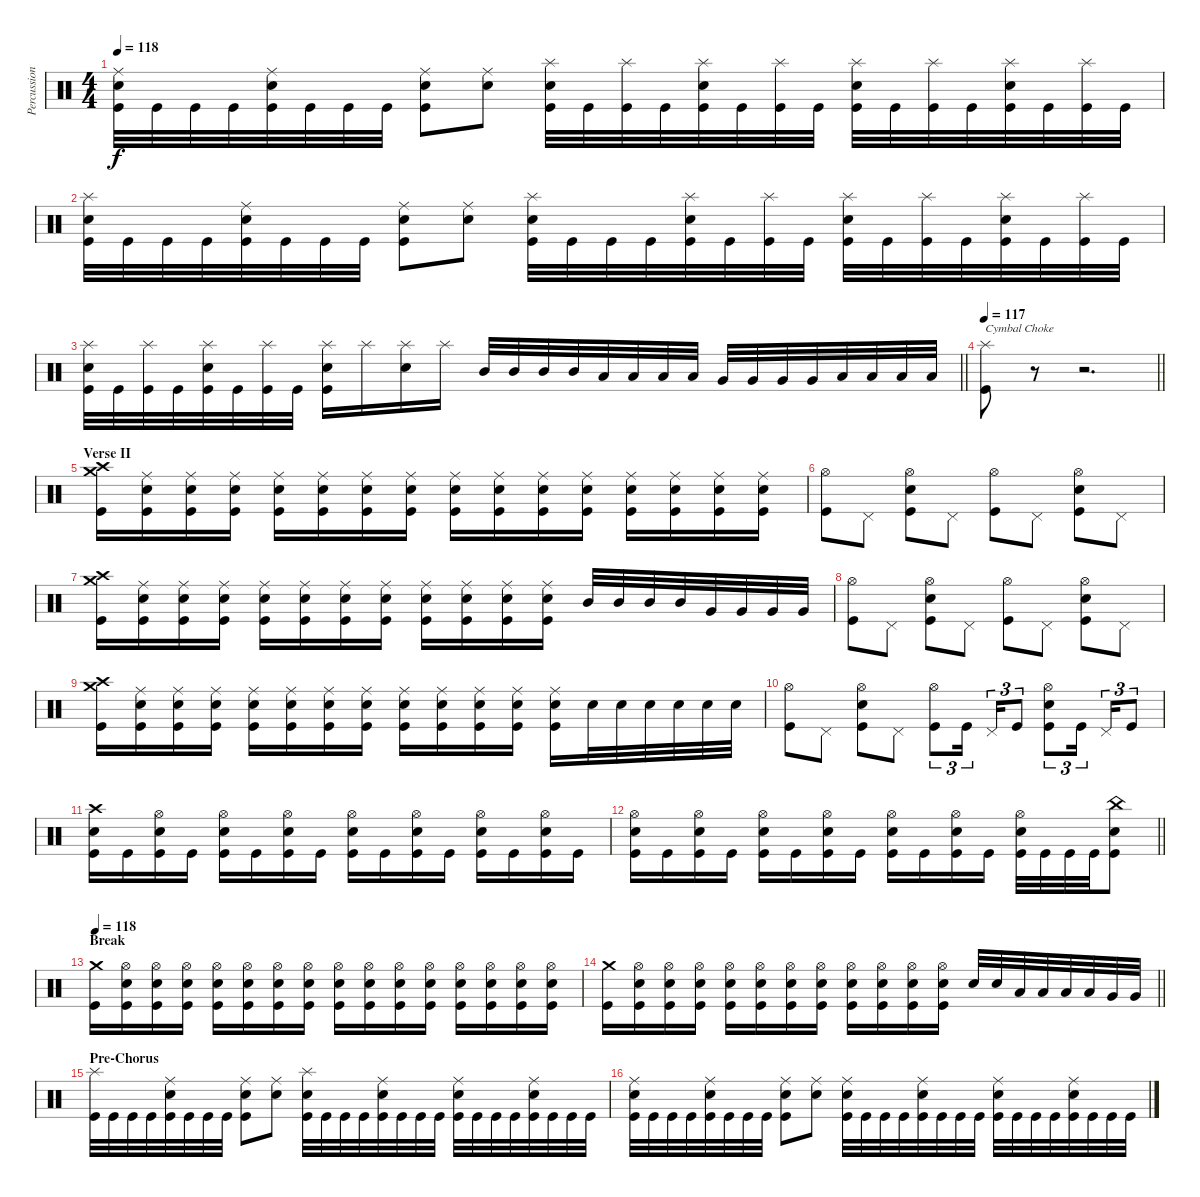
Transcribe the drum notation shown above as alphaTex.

\track ("Percussion" "Percussion") {instrument percussion}
\staff {score}
\articulation defaults
\ts (4 4)
\tempo 118
\clef neutral
\ks c
("Ride (middle)" "Electric Snare (hit)" "Kick (hit)").32{dy f} "Kick (hit)".32 "Kick (hit)".32 "Kick (hit)".32 ("Ride (middle)" "Electric Snare (hit)" "Kick (hit)").32 "Kick (hit)".32 "Kick (hit)".32 "Kick (hit)".32 ("Ride (middle)" "Electric Snare (hit)" "Kick (hit)").8 ("Ride (middle)" "Electric Snare (hit)").8 ("Splash (hit)" "Electric Snare (hit)" "Kick (hit)").32 "Kick (hit)".32 ("Splash (hit)" "Kick (hit)").32 "Kick (hit)".32 ("Splash (hit)" "Electric Snare (hit)" "Kick (hit)").32 "Kick (hit)".32 ("Splash (hit)" "Kick (hit)").32 "Kick (hit)".32 ("Splash (hit)" "Electric Snare (hit)" "Kick (hit)").32 "Kick (hit)".32 ("Splash (hit)" "Kick (hit)").32 "Kick (hit)".32 ("Splash (hit)" "Electric Snare (hit)" "Kick (hit)").32 "Kick (hit)".32 ("Splash (hit)" "Kick (hit)").32 "Kick (hit)".32 |
("Splash (hit)" "Electric Snare (hit)" "Kick (hit)").32 "Kick (hit)".32 "Kick (hit)".32 "Kick (hit)".32 ("Ride (middle)" "Electric Snare (hit)" "Kick (hit)").32 "Kick (hit)".32 "Kick (hit)".32 "Kick (hit)".32 ("Ride (middle)" "Electric Snare (hit)" "Kick (hit)").8 ("Ride (middle)" "Electric Snare (hit)").8 ("Splash (hit)" "Electric Snare (hit)" "Kick (hit)").32 "Kick (hit)".32 "Kick (hit)".32 "Kick (hit)".32 ("Splash (hit)" "Electric Snare (hit)" "Kick (hit)").32 "Kick (hit)".32 ("Splash (hit)" "Kick (hit)").32 "Kick (hit)".32 ("Splash (hit)" "Electric Snare (hit)" "Kick (hit)").32 "Kick (hit)".32 ("Splash (hit)" "Kick (hit)").32 "Kick (hit)".32 ("Splash (hit)" "Electric Snare (hit)" "Kick (hit)").32 "Kick (hit)".32 ("Splash (hit)" "Kick (hit)").32 "Kick (hit)".32 |
\barLineRight lightlight
("Splash (hit)" "Electric Snare (hit)" "Kick (hit)").32 "Kick (hit)".32 ("Splash (hit)" "Kick (hit)").32 "Kick (hit)".32 ("Splash (hit)" "Electric Snare (hit)" "Kick (hit)").32 "Kick (hit)".32 ("Splash (hit)" "Kick (hit)").32 "Kick (hit)".32 ("Splash (hit)" "Electric Snare (hit)" "Kick (hit)").16 "Splash (hit)".16 ("Splash (hit)" "Electric Snare (hit)").16 "Splash (hit)".16 "Mid Tom (hit)".32 "Mid Tom (hit)".32 "Mid Tom (hit)".32 "Mid Tom (hit)".32 "Low Tom (hit)".32 "Low Tom (hit)".32 "Low Tom (hit)".32 "Low Tom (hit)".32 "Very Low Tom (hit)".32 "Very Low Tom (hit)".32 "Very Low Tom (hit)".32 "Very Low Tom (hit)".32 "Low Floor Tom (hit)".32 "Low Floor Tom (hit)".32 "Low Floor Tom (hit)".32 "Low Floor Tom (hit)".32 |
\tempo 117
\barLineRight lightlight
("Splash (hit)" "Kick (hit)").8{txt "Cymbal Choke"} r.8{volume 0} r.2{d} |
\section ("" "Verse II")
("Crash medium (hit)" "Crash high (hit)" "Kick (hit)").16{volume 13} ("Ride (middle)" "Electric Snare (hit)" "Kick (hit)").16 ("Ride (middle)" "Electric Snare (hit)" "Kick (hit)").16 ("Ride (middle)" "Electric Snare (hit)" "Kick (hit)").16 ("Ride (middle)" "Electric Snare (hit)" "Kick (hit)").16 ("Ride (middle)" "Electric Snare (hit)" "Kick (hit)").16 ("Ride (middle)" "Electric Snare (hit)" "Kick (hit)").16 ("Ride (middle)" "Electric Snare (hit)" "Kick (hit)").16 ("Ride (middle)" "Electric Snare (hit)" "Kick (hit)").16 ("Ride (middle)" "Electric Snare (hit)" "Kick (hit)").16 ("Ride (middle)" "Electric Snare (hit)" "Kick (hit)").16 ("Ride (middle)" "Electric Snare (hit)" "Kick (hit)").16 ("Ride (middle)" "Electric Snare (hit)" "Kick (hit)").16 ("Ride (middle)" "Electric Snare (hit)" "Kick (hit)").16 ("Ride (middle)" "Electric Snare (hit)" "Kick (hit)").16 ("Ride (middle)" "Electric Snare (hit)" "Kick (hit)").16 |
("Hi-Hat (open)" "Kick (hit)").8 "Pedal Hi-Hat (hit)".8 ("Hi-Hat (open)" "Electric Snare (hit)" "Kick (hit)").8 "Pedal Hi-Hat (hit)".8 ("Hi-Hat (open)" "Kick (hit)").8 "Pedal Hi-Hat (hit)".8 ("Hi-Hat (open)" "Electric Snare (hit)" "Kick (hit)").8 "Pedal Hi-Hat (hit)".8 |
("Crash medium (hit)" "Crash high (hit)" "Kick (hit)").16 ("Ride (middle)" "Electric Snare (hit)" "Kick (hit)").16 ("Ride (middle)" "Electric Snare (hit)" "Kick (hit)").16 ("Ride (middle)" "Electric Snare (hit)" "Kick (hit)").16 ("Ride (middle)" "Electric Snare (hit)" "Kick (hit)").16 ("Ride (middle)" "Electric Snare (hit)" "Kick (hit)").16 ("Ride (middle)" "Electric Snare (hit)" "Kick (hit)").16 ("Ride (middle)" "Electric Snare (hit)" "Kick (hit)").16 ("Ride (middle)" "Electric Snare (hit)" "Kick (hit)").16 ("Ride (middle)" "Electric Snare (hit)" "Kick (hit)").16 ("Ride (middle)" "Electric Snare (hit)" "Kick (hit)").16 ("Ride (middle)" "Electric Snare (hit)" "Kick (hit)").16 "Mid Tom (hit)".32 "Mid Tom (hit)".32 "Mid Tom (hit)".32 "Mid Tom (hit)".32 "Very Low Tom (hit)".32 "Very Low Tom (hit)".32 "Very Low Tom (hit)".32 "Very Low Tom (hit)".32 |
("Hi-Hat (open)" "Kick (hit)").8 "Pedal Hi-Hat (hit)".8 ("Hi-Hat (open)" "Electric Snare (hit)" "Kick (hit)").8 "Pedal Hi-Hat (hit)".8 ("Hi-Hat (open)" "Kick (hit)").8 "Pedal Hi-Hat (hit)".8 ("Hi-Hat (open)" "Electric Snare (hit)" "Kick (hit)").8 "Pedal Hi-Hat (hit)".8 |
("Crash medium (hit)" "Crash high (hit)" "Kick (hit)").16 ("Ride (middle)" "Electric Snare (hit)" "Kick (hit)").16 ("Ride (middle)" "Electric Snare (hit)" "Kick (hit)").16 ("Ride (middle)" "Electric Snare (hit)" "Kick (hit)").16 ("Ride (middle)" "Electric Snare (hit)" "Kick (hit)").16 ("Ride (middle)" "Electric Snare (hit)" "Kick (hit)").16 ("Ride (middle)" "Electric Snare (hit)" "Kick (hit)").16 ("Ride (middle)" "Electric Snare (hit)" "Kick (hit)").16 ("Ride (middle)" "Electric Snare (hit)" "Kick (hit)").16 ("Ride (middle)" "Electric Snare (hit)" "Kick (hit)").16 ("Ride (middle)" "Electric Snare (hit)" "Kick (hit)").16 ("Ride (middle)" "Electric Snare (hit)" "Kick (hit)").16 ("Ride (middle)" "Electric Snare (hit)" "Kick (hit)").16 "Electric Snare (hit)".32 "Electric Snare (hit)".32 "Electric Snare (hit)".32 "Electric Snare (hit)".32 "Electric Snare (hit)".32 "Electric Snare (hit)".32 |
("Hi-Hat (open)" "Kick (hit)").8 "Pedal Hi-Hat (hit)".8 ("Hi-Hat (open)" "Electric Snare (hit)" "Kick (hit)").8 "Pedal Hi-Hat (hit)".8 ("Hi-Hat (open)" "Kick (hit)").8{tu (3 2)} "Kick (hit)".16{tu (3 2) beam splitsecondary} "Pedal Hi-Hat (hit)".16{tu (3 2)} "Kick (hit)".8{tu (3 2)} ("Hi-Hat (open)" "Electric Snare (hit)" "Kick (hit)").8{tu (3 2)} "Kick (hit)".16{tu (3 2) beam splitsecondary} "Pedal Hi-Hat (hit)".16{tu (3 2)} "Kick (hit)".8{tu (3 2)} |
("Crash high (hit)" "Electric Snare (hit)" "Kick (hit)").16 "Kick (hit)".16 ("Hi-Hat (open)" "Electric Snare (hit)" "Kick (hit)").16 "Kick (hit)".16 ("Hi-Hat (open)" "Electric Snare (hit)" "Kick (hit)").16 "Kick (hit)".16 ("Hi-Hat (open)" "Electric Snare (hit)" "Kick (hit)").16 "Kick (hit)".16 ("Hi-Hat (open)" "Electric Snare (hit)" "Kick (hit)").16 "Kick (hit)".16 ("Hi-Hat (open)" "Electric Snare (hit)" "Kick (hit)").16 "Kick (hit)".16 ("Hi-Hat (open)" "Electric Snare (hit)" "Kick (hit)").16 "Kick (hit)".16 ("Hi-Hat (open)" "Electric Snare (hit)" "Kick (hit)").16 "Kick (hit)".16 |
\barLineRight lightlight
("Hi-Hat (open)" "Electric Snare (hit)" "Kick (hit)").16 "Kick (hit)".16 ("Hi-Hat (open)" "Electric Snare (hit)" "Kick (hit)").16 "Kick (hit)".16 ("Hi-Hat (open)" "Electric Snare (hit)" "Kick (hit)").16 "Kick (hit)".16 ("Hi-Hat (open)" "Electric Snare (hit)" "Kick (hit)").16 "Kick (hit)".16 ("Hi-Hat (open)" "Electric Snare (hit)" "Kick (hit)").16 "Kick (hit)".16 ("Hi-Hat (open)" "Electric Snare (hit)" "Kick (hit)").16 "Kick (hit)".16 ("Hi-Hat (open)" "Electric Snare (hit)" "Kick (hit)").32 "Kick (hit)".32 "Kick (hit)".32 "Kick (hit)".32 ("China (hit)" "Electric Snare (hit)" "Kick (hit)").8 |
\section ("" "Break")
\tempo 118
("Crash medium (hit)" "Kick (hit)").16 ("Hi-Hat (open)" "Electric Snare (hit)" "Kick (hit)").16 ("Hi-Hat (open)" "Electric Snare (hit)" "Kick (hit)").16 ("Hi-Hat (open)" "Electric Snare (hit)" "Kick (hit)").16 ("Hi-Hat (open)" "Electric Snare (hit)" "Kick (hit)").16 ("Hi-Hat (open)" "Electric Snare (hit)" "Kick (hit)").16 ("Hi-Hat (open)" "Electric Snare (hit)" "Kick (hit)").16 ("Hi-Hat (open)" "Electric Snare (hit)" "Kick (hit)").16 ("Hi-Hat (open)" "Electric Snare (hit)" "Kick (hit)").16 ("Hi-Hat (open)" "Electric Snare (hit)" "Kick (hit)").16 ("Hi-Hat (open)" "Electric Snare (hit)" "Kick (hit)").16 ("Hi-Hat (open)" "Electric Snare (hit)" "Kick (hit)").16 ("Hi-Hat (open)" "Electric Snare (hit)" "Kick (hit)").16 ("Hi-Hat (open)" "Electric Snare (hit)" "Kick (hit)").16 ("Hi-Hat (open)" "Electric Snare (hit)" "Kick (hit)").16 ("Hi-Hat (open)" "Electric Snare (hit)" "Kick (hit)").16 |
\barLineRight lightlight
("Crash medium (hit)" "Kick (hit)").16 ("Hi-Hat (open)" "Electric Snare (hit)" "Kick (hit)").16 ("Hi-Hat (open)" "Electric Snare (hit)" "Kick (hit)").16 ("Hi-Hat (open)" "Electric Snare (hit)" "Kick (hit)").16 ("Hi-Hat (open)" "Electric Snare (hit)" "Kick (hit)").16 ("Hi-Hat (open)" "Electric Snare (hit)" "Kick (hit)").16 ("Hi-Hat (open)" "Electric Snare (hit)" "Kick (hit)").16 ("Hi-Hat (open)" "Electric Snare (hit)" "Kick (hit)").16 ("Hi-Hat (open)" "Electric Snare (hit)" "Kick (hit)").16 ("Hi-Hat (open)" "Electric Snare (hit)" "Kick (hit)").16 ("Hi-Hat (open)" "Electric Snare (hit)" "Kick (hit)").16 ("Hi-Hat (open)" "Electric Snare (hit)" "Kick (hit)").16 "Electric Snare (hit)".32 "Electric Snare (hit)".32 "Low Tom (hit)".32 "Low Tom (hit)".32 "Low Tom (hit)".32 "Low Tom (hit)".32 "Very Low Tom (hit)".32 "Very Low Tom (hit)".32 |
\section ("" "Pre-Chorus")
("Splash (hit)" "Kick (hit)").32 "Kick (hit)".32 "Kick (hit)".32 "Kick (hit)".32 ("Ride (middle)" "Electric Snare (hit)" "Kick (hit)").32 "Kick (hit)".32 "Kick (hit)".32 "Kick (hit)".32 ("Ride (middle)" "Electric Snare (hit)" "Kick (hit)").8 ("Ride (middle)" "Electric Snare (hit)").8 ("Splash (hit)" "Electric Snare (hit)" "Kick (hit)").32 "Kick (hit)".32 "Kick (hit)".32 "Kick (hit)".32 ("Ride (middle)" "Electric Snare (hit)" "Kick (hit)").32 "Kick (hit)".32 "Kick (hit)".32 "Kick (hit)".32 ("Ride (middle)" "Electric Snare (hit)" "Kick (hit)").32 "Kick (hit)".32 "Kick (hit)".32 "Kick (hit)".32 ("Ride (middle)" "Electric Snare (hit)" "Kick (hit)").32 "Kick (hit)".32 "Kick (hit)".32 "Kick (hit)".32 |
("Ride (middle)" "Electric Snare (hit)" "Kick (hit)").32 "Kick (hit)".32 "Kick (hit)".32 "Kick (hit)".32 ("Ride (middle)" "Electric Snare (hit)" "Kick (hit)").32 "Kick (hit)".32 "Kick (hit)".32 "Kick (hit)".32 ("Ride (middle)" "Electric Snare (hit)" "Kick (hit)").8 ("Ride (middle)" "Electric Snare (hit)").8 ("Ride (middle)" "Electric Snare (hit)" "Kick (hit)").32 "Kick (hit)".32 "Kick (hit)".32 "Kick (hit)".32 ("Ride (middle)" "Electric Snare (hit)" "Kick (hit)").32 "Kick (hit)".32 "Kick (hit)".32 "Kick (hit)".32 ("Ride (middle)" "Electric Snare (hit)" "Kick (hit)").32 "Kick (hit)".32 "Kick (hit)".32 "Kick (hit)".32 ("Ride (middle)" "Electric Snare (hit)" "Kick (hit)").32 "Kick (hit)".32 "Kick (hit)".32 "Kick (hit)".32
